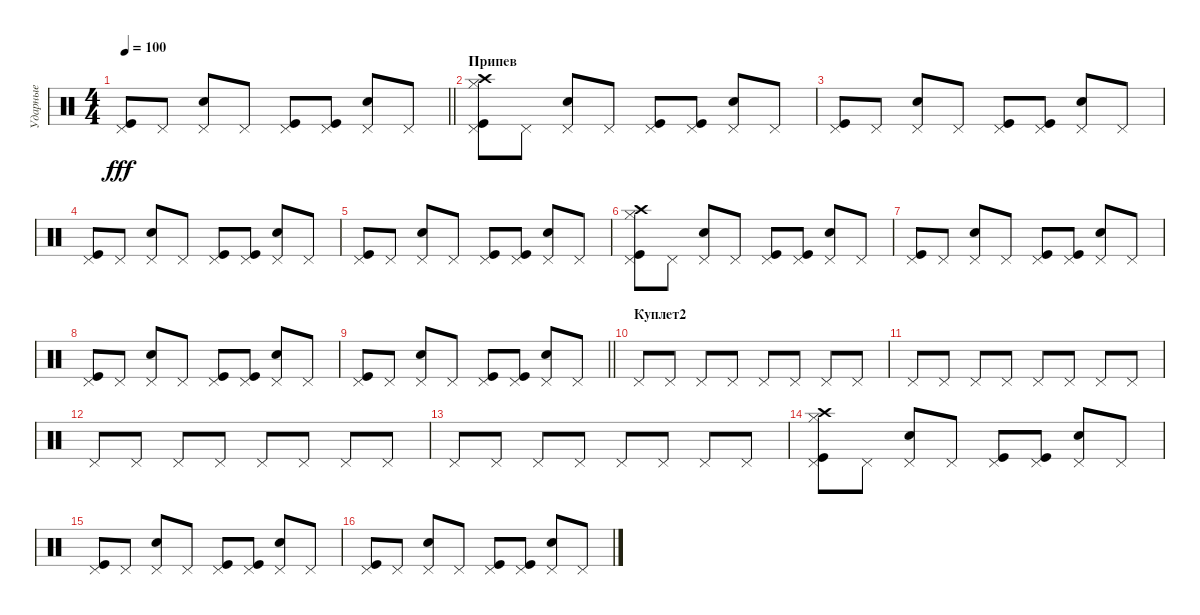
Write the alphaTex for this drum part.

\track ("Ударные" "Ударные") {instrument percussion}
\staff {score}
\articulation defaults
\ts (4 4)
\tempo 100
\clef neutral
\barLineRight lightlight
\ks c
("Pedal Hi-Hat (hit)" "Kick (hit)").8{dy fff} "Pedal Hi-Hat (hit)".8 ("Pedal Hi-Hat (hit)" "Snare (hit) 2").8 "Pedal Hi-Hat (hit)".8 ("Pedal Hi-Hat (hit)" "Kick (hit)").8 ("Pedal Hi-Hat (hit)" "Kick (hit)").8 ("Pedal Hi-Hat (hit)" "Snare (hit) 2").8 "Pedal Hi-Hat (hit)".8 |
\section ("" "Припев")
("Pedal Hi-Hat (hit)" "Crash high (hit)" "Hi-Hat (closed)" "Kick (hit)").8 "Pedal Hi-Hat (hit)".8 ("Pedal Hi-Hat (hit)" "Snare (hit) 2").8 "Pedal Hi-Hat (hit)".8 ("Pedal Hi-Hat (hit)" "Kick (hit)").8 ("Pedal Hi-Hat (hit)" "Kick (hit)").8 ("Pedal Hi-Hat (hit)" "Snare (hit) 2").8 "Pedal Hi-Hat (hit)".8 |
("Pedal Hi-Hat (hit)" "Kick (hit)").8 "Pedal Hi-Hat (hit)".8 ("Pedal Hi-Hat (hit)" "Snare (hit) 2").8 "Pedal Hi-Hat (hit)".8 ("Pedal Hi-Hat (hit)" "Kick (hit)").8 ("Pedal Hi-Hat (hit)" "Kick (hit)").8 ("Pedal Hi-Hat (hit)" "Snare (hit) 2").8 "Pedal Hi-Hat (hit)".8 |
("Pedal Hi-Hat (hit)" "Kick (hit)").8 "Pedal Hi-Hat (hit)".8 ("Pedal Hi-Hat (hit)" "Snare (hit) 2").8 "Pedal Hi-Hat (hit)".8 ("Pedal Hi-Hat (hit)" "Kick (hit)").8 ("Pedal Hi-Hat (hit)" "Kick (hit)").8 ("Pedal Hi-Hat (hit)" "Snare (hit) 2").8 "Pedal Hi-Hat (hit)".8 |
("Pedal Hi-Hat (hit)" "Kick (hit)").8 "Pedal Hi-Hat (hit)".8 ("Pedal Hi-Hat (hit)" "Snare (hit) 2").8 "Pedal Hi-Hat (hit)".8 ("Pedal Hi-Hat (hit)" "Kick (hit)").8 ("Pedal Hi-Hat (hit)" "Kick (hit)").8 ("Pedal Hi-Hat (hit)" "Snare (hit) 2").8 "Pedal Hi-Hat (hit)".8 |
("Pedal Hi-Hat (hit)" "Crash high (hit)" "Hi-Hat (closed)" "Kick (hit)").8 "Pedal Hi-Hat (hit)".8 ("Pedal Hi-Hat (hit)" "Snare (hit) 2").8 "Pedal Hi-Hat (hit)".8 ("Pedal Hi-Hat (hit)" "Kick (hit)").8 ("Pedal Hi-Hat (hit)" "Kick (hit)").8 ("Pedal Hi-Hat (hit)" "Snare (hit) 2").8 "Pedal Hi-Hat (hit)".8 |
("Pedal Hi-Hat (hit)" "Kick (hit)").8 "Pedal Hi-Hat (hit)".8 ("Pedal Hi-Hat (hit)" "Snare (hit) 2").8 "Pedal Hi-Hat (hit)".8 ("Pedal Hi-Hat (hit)" "Kick (hit)").8 ("Pedal Hi-Hat (hit)" "Kick (hit)").8 ("Pedal Hi-Hat (hit)" "Snare (hit) 2").8 "Pedal Hi-Hat (hit)".8 |
("Pedal Hi-Hat (hit)" "Kick (hit)").8 "Pedal Hi-Hat (hit)".8 ("Pedal Hi-Hat (hit)" "Snare (hit) 2").8 "Pedal Hi-Hat (hit)".8 ("Pedal Hi-Hat (hit)" "Kick (hit)").8 ("Pedal Hi-Hat (hit)" "Kick (hit)").8 ("Pedal Hi-Hat (hit)" "Snare (hit) 2").8 "Pedal Hi-Hat (hit)".8 |
\barLineRight lightlight
("Pedal Hi-Hat (hit)" "Kick (hit)").8 "Pedal Hi-Hat (hit)".8 ("Pedal Hi-Hat (hit)" "Snare (hit) 2").8 "Pedal Hi-Hat (hit)".8 ("Pedal Hi-Hat (hit)" "Kick (hit)").8 ("Pedal Hi-Hat (hit)" "Kick (hit)").8 ("Pedal Hi-Hat (hit)" "Snare (hit) 2").8 "Pedal Hi-Hat (hit)".8 |
\section ("" "Куплет2")
"Pedal Hi-Hat (hit)".8 "Pedal Hi-Hat (hit)".8 "Pedal Hi-Hat (hit)".8 "Pedal Hi-Hat (hit)".8 "Pedal Hi-Hat (hit)".8 "Pedal Hi-Hat (hit)".8 "Pedal Hi-Hat (hit)".8 "Pedal Hi-Hat (hit)".8 |
"Pedal Hi-Hat (hit)".8 "Pedal Hi-Hat (hit)".8 "Pedal Hi-Hat (hit)".8 "Pedal Hi-Hat (hit)".8 "Pedal Hi-Hat (hit)".8 "Pedal Hi-Hat (hit)".8 "Pedal Hi-Hat (hit)".8 "Pedal Hi-Hat (hit)".8 |
"Pedal Hi-Hat (hit)".8 "Pedal Hi-Hat (hit)".8 "Pedal Hi-Hat (hit)".8 "Pedal Hi-Hat (hit)".8 "Pedal Hi-Hat (hit)".8 "Pedal Hi-Hat (hit)".8 "Pedal Hi-Hat (hit)".8 "Pedal Hi-Hat (hit)".8 |
"Pedal Hi-Hat (hit)".8 "Pedal Hi-Hat (hit)".8 "Pedal Hi-Hat (hit)".8 "Pedal Hi-Hat (hit)".8 "Pedal Hi-Hat (hit)".8 "Pedal Hi-Hat (hit)".8 "Pedal Hi-Hat (hit)".8 "Pedal Hi-Hat (hit)".8 |
("Pedal Hi-Hat (hit)" "Crash high (hit)" "Hi-Hat (closed)" "Kick (hit)").8 "Pedal Hi-Hat (hit)".8 ("Pedal Hi-Hat (hit)" "Snare (hit) 2").8 "Pedal Hi-Hat (hit)".8 ("Pedal Hi-Hat (hit)" "Kick (hit)").8 ("Pedal Hi-Hat (hit)" "Kick (hit)").8 ("Pedal Hi-Hat (hit)" "Snare (hit) 2").8 "Pedal Hi-Hat (hit)".8 |
("Pedal Hi-Hat (hit)" "Kick (hit)").8 "Pedal Hi-Hat (hit)".8 ("Pedal Hi-Hat (hit)" "Snare (hit) 2").8 "Pedal Hi-Hat (hit)".8 ("Pedal Hi-Hat (hit)" "Kick (hit)").8 ("Pedal Hi-Hat (hit)" "Kick (hit)").8 ("Pedal Hi-Hat (hit)" "Snare (hit) 2").8 "Pedal Hi-Hat (hit)".8 |
("Pedal Hi-Hat (hit)" "Kick (hit)").8 "Pedal Hi-Hat (hit)".8 ("Pedal Hi-Hat (hit)" "Snare (hit) 2").8 "Pedal Hi-Hat (hit)".8 ("Pedal Hi-Hat (hit)" "Kick (hit)").8 ("Pedal Hi-Hat (hit)" "Kick (hit)").8 ("Pedal Hi-Hat (hit)" "Snare (hit) 2").8 "Pedal Hi-Hat (hit)".8
